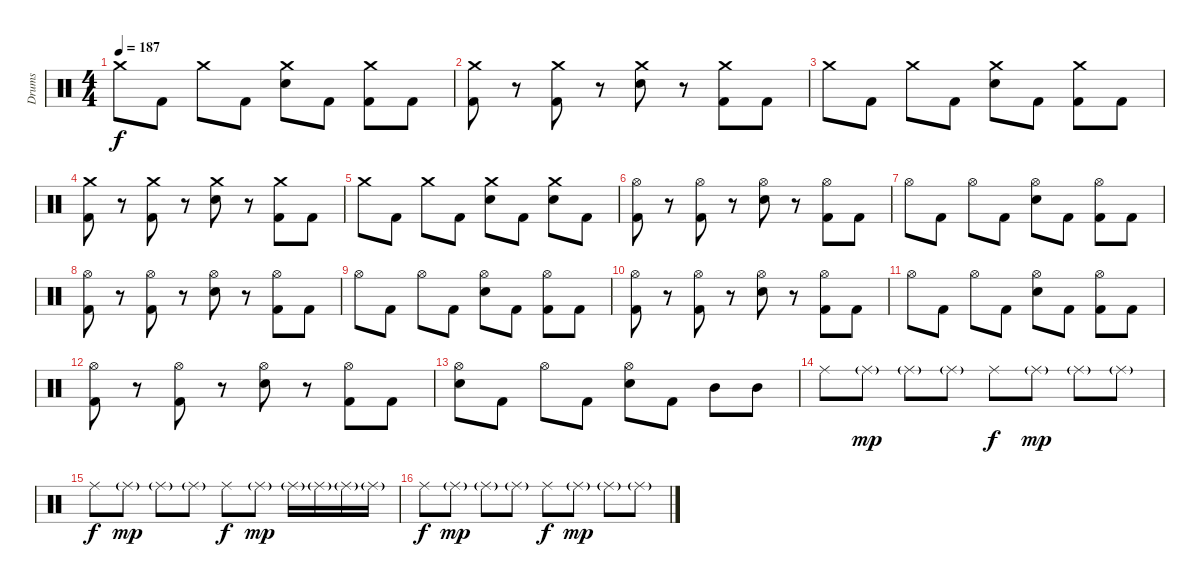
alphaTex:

\track ("Drums" "Drums") {instrument percussion}
\staff {score}
\articulation defaults
\ts (4 4)
\tempo 187
\clef neutral
\ks c "Crash medium (hit)".8{dy f} "Kick (hit) 2".8 "Crash medium (hit)".8 "Kick (hit) 2".8
("Crash medium (hit)" "Electric Snare (hit)").8 "Kick (hit) 2".8 ("Crash medium (hit)" "Kick (hit) 2").8 "Kick (hit) 2".8 |
("Crash medium (hit)" "Kick (hit) 2").8 r.8 ("Crash medium (hit)" "Kick (hit) 2").8 r.8 ("Crash medium (hit)" "Electric Snare (hit)").8 r.8 ("Crash medium (hit)" "Kick (hit) 2").8 "Kick (hit) 2".8 |
"Crash medium (hit)".8 "Kick (hit) 2".8 "Crash medium (hit)".8 "Kick (hit) 2".8 ("Crash medium (hit)" "Electric Snare (hit)").8 "Kick (hit) 2".8 ("Crash medium (hit)" "Kick (hit) 2").8 "Kick (hit) 2".8 |
("Crash medium (hit)" "Kick (hit) 2").8 r.8 ("Crash medium (hit)" "Kick (hit) 2").8 r.8 ("Crash medium (hit)" "Electric Snare (hit)").8 r.8 ("Crash medium (hit)" "Kick (hit) 2").8 "Kick (hit) 2".8 |
"Crash medium (hit)".8 "Kick (hit) 2".8 "Crash medium (hit)".8 "Kick (hit) 2".8 ("Crash medium (hit)" "Electric Snare (hit)").8 "Kick (hit) 2".8 ("Crash medium (hit)" "Electric Snare (hit)").8 "Kick (hit) 2".8 |
("Hi-Hat (open)" "Kick (hit) 2").8 r.8 ("Hi-Hat (open)" "Kick (hit) 2").8 r.8 ("Hi-Hat (open)" "Electric Snare (hit)").8 r.8 ("Hi-Hat (open)" "Kick (hit) 2").8 "Kick (hit) 2".8 |
"Hi-Hat (open)".8 "Kick (hit) 2".8 "Hi-Hat (open)".8 "Kick (hit) 2".8 ("Hi-Hat (open)" "Electric Snare (hit)").8 "Kick (hit) 2".8 ("Hi-Hat (open)" "Kick (hit) 2").8 "Kick (hit) 2".8 |
("Hi-Hat (open)" "Kick (hit) 2").8 r.8 ("Hi-Hat (open)" "Kick (hit) 2").8 r.8 ("Hi-Hat (open)" "Electric Snare (hit)").8 r.8 ("Hi-Hat (open)" "Kick (hit) 2").8 "Kick (hit) 2".8 |
"Hi-Hat (open)".8 "Kick (hit) 2".8 "Hi-Hat (open)".8 "Kick (hit) 2".8 ("Hi-Hat (open)" "Electric Snare (hit)").8 "Kick (hit) 2".8 ("Hi-Hat (open)" "Kick (hit) 2").8 "Kick (hit) 2".8 |
("Hi-Hat (open)" "Kick (hit) 2").8 r.8 ("Hi-Hat (open)" "Kick (hit) 2").8 r.8 ("Hi-Hat (open)" "Electric Snare (hit)").8 r.8 ("Hi-Hat (open)" "Kick (hit) 2").8 "Kick (hit) 2".8 |
"Hi-Hat (open)".8 "Kick (hit) 2".8 "Hi-Hat (open)".8 "Kick (hit) 2".8 ("Hi-Hat (open)" "Electric Snare (hit)").8 "Kick (hit) 2".8 ("Hi-Hat (open)" "Kick (hit) 2").8 "Kick (hit) 2".8 |
("Hi-Hat (open)" "Kick (hit) 2").8 r.8 ("Hi-Hat (open)" "Kick (hit) 2").8 r.8 ("Hi-Hat (open)" "Electric Snare (hit)").8 r.8 ("Hi-Hat (open)" "Kick (hit) 2").8 "Kick (hit) 2".8 |
("Hi-Hat (open)" "Electric Snare (hit)").8 "Kick (hit) 2".8 "Hi-Hat (open)".8 "Kick (hit) 2".8 ("Hi-Hat (open)" "Electric Snare (hit)").8 "Kick (hit) 2".8 "Mid Tom (hit)".8 "Mid Tom (hit)".8 |
"Ride (middle)".8 "Ride (middle)"{g}.8{dy mp} "Ride (middle)"{g}.8 "Ride (middle)"{g}.8 "Ride (middle)".8{dy f} "Ride (middle)"{g}.8{dy mp} "Ride (middle)"{g}.8 "Ride (middle)"{g}.8 |
"Ride (middle)".8{dy f} "Ride (middle)"{g}.8{dy mp} "Ride (middle)"{g}.8 "Ride (middle)"{g}.8 "Ride (middle)".8{dy f} "Ride (middle)"{g}.8{dy mp} "Ride (middle)"{g}.16 "Ride (middle)"{g}.16 "Ride (middle)"{g}.16 "Ride (middle)"{g}.16 |
"Ride (middle)".8{dy f} "Ride (middle)"{g}.8{dy mp} "Ride (middle)"{g}.8 "Ride (middle)"{g}.8 "Ride (middle)".8{dy f} "Ride (middle)"{g}.8{dy mp} "Ride (middle)"{g}.8 "Ride (middle)"{g}.8
